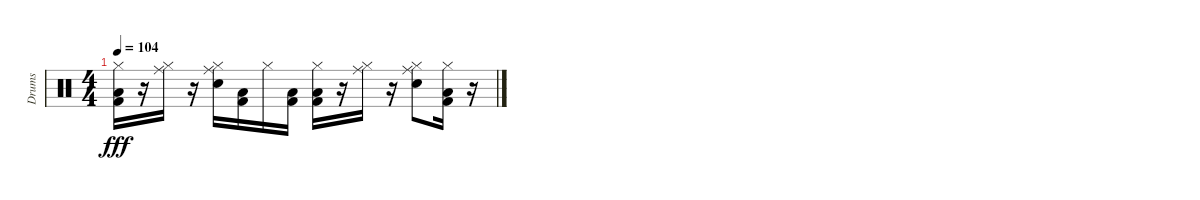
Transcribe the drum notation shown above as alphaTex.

\track ("Drums" "Drums") {instrument percussion}
\staff {score}
\articulation defaults
\ts (4 4)
\tempo 104
\clef neutral
\ks c
("Kick (hit) 2" "Hi-Hat (closed)" "Low Floor Tom (hit)").16{dy fff volume 3} r.16 ("Hi-Hat (closed)" "Ride (middle)").16{volume 3} r.16 ("Ride (middle)" "Hi-Hat (closed)" "Electric Snare (hit)").16{volume 2} ("Low Floor Tom (hit)" "Kick (hit) 2").16{volume 2} "Hi-Hat (closed)".16{volume 2} ("Low Floor Tom (hit)" "Kick (hit) 2").16 ("Low Floor Tom (hit)" "Hi-Hat (closed)" "Kick (hit) 2").16 r.16 ("Ride (middle)" "Hi-Hat (closed)").16{volume 1} r.16 ("Hi-Hat (closed)" "Ride (middle)" "Electric Snare (hit)").8{volume 1} ("Kick (hit) 2" "Low Floor Tom (hit)" "Hi-Hat (closed)").16{volume 0} r.16
